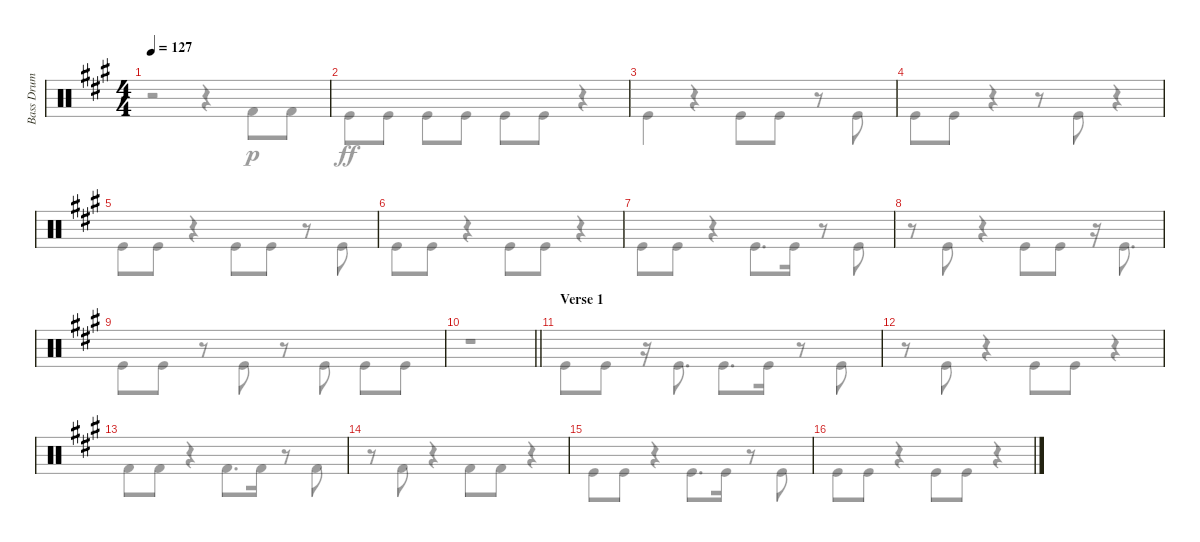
\track ("Bass Drum" "Bass Drum") {instrument percussion}
\staff {score}
\articulation defaults
\voice
\ts (4 4)
\tempo 127
\clef neutral
\ks a
|
|
|
|
|
|
|
|
|
\barLineRight lightlight
|
\section ("" "Verse 1")
|
|
|
|
|
\voice
\clef neutral
\ks a
r.2{dy p} r.4 "Kick (hit) 2".8 "Kick (hit) 2".8 |
"Kick (hit)".8{dy ff} "Kick (hit)".8 "Kick (hit)".8 "Kick (hit)".8 "Kick (hit)".8 "Kick (hit)".8 r.4 |
"Kick (hit)".4 r.4 "Kick (hit)".8 "Kick (hit)".8 r.8 "Kick (hit)".8 |
"Kick (hit)".8 "Kick (hit)".8 r.4 r.8 "Kick (hit)".8 r.4 |
"Kick (hit)".8 "Kick (hit)".8 r.4 "Kick (hit)".8 "Kick (hit)".8 r.8 "Kick (hit)".8 |
"Kick (hit)".8 "Kick (hit)".8 r.4 "Kick (hit)".8 "Kick (hit)".8 r.4 |
"Kick (hit)".8 "Kick (hit)".8 r.4 "Kick (hit)".8{d} "Kick (hit)".16 r.8 "Kick (hit)".8 |
r.8 "Kick (hit)".8 r.4 "Kick (hit)".8 "Kick (hit)".8 r.16 "Kick (hit)".8{d} |
"Kick (hit)".8 "Kick (hit)".8 r.8 "Kick (hit)".8 r.8 "Kick (hit)".8 "Kick (hit)".8 "Kick (hit)".8 |
\barLineRight lightlight
r.1 |
"Kick (hit)".8 "Kick (hit)".8 r.16 "Kick (hit)".8{d} "Kick (hit)".8{d} "Kick (hit)".16 r.8 "Kick (hit)".8 |
r.8 "Kick (hit)".8 r.4 "Kick (hit)".8 "Kick (hit)".8 r.4 |
"Kick (hit) 2".8 "Kick (hit) 2".8 r.4 "Kick (hit) 2".8{d} "Kick (hit) 2".16 r.8 "Kick (hit) 2".8 |
r.8 "Kick (hit) 2".8 r.4 "Kick (hit) 2".8 "Kick (hit) 2".8 r.4 |
"Kick (hit)".8 "Kick (hit)".8 r.4 "Kick (hit)".8{d} "Kick (hit)".16 r.8 "Kick (hit)".8 |
"Kick (hit)".8 "Kick (hit)".8 r.4 "Kick (hit)".8 "Kick (hit)".8 r.4
